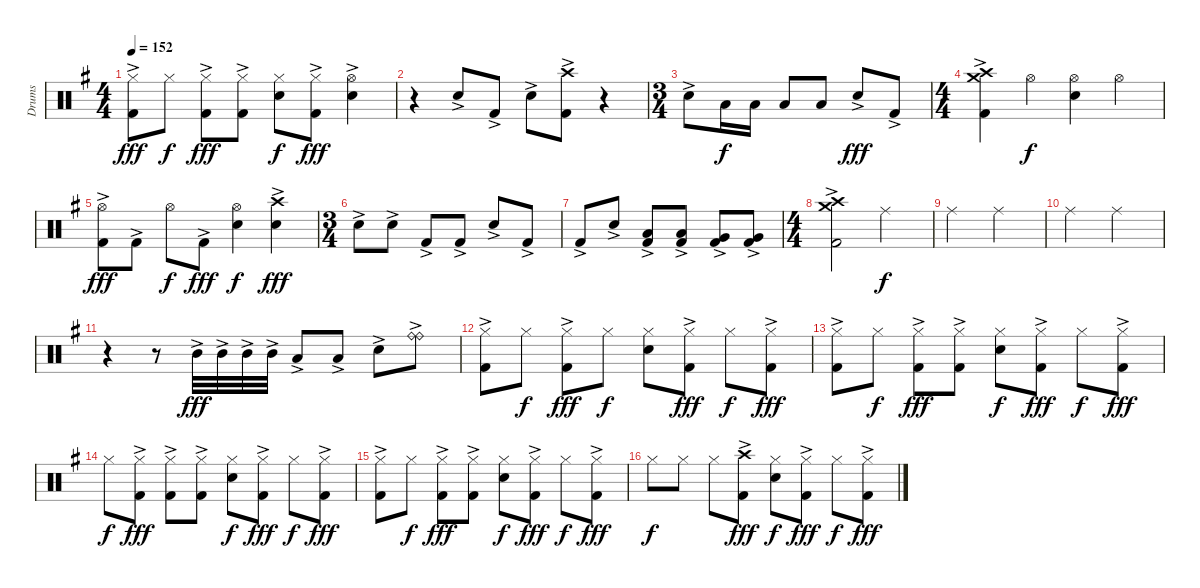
\track ("Drums" "Drums") {instrument percussion}
\staff {score}
\articulation defaults
\ts (4 4)
\tempo 152
\clef neutral
\ks eminor
("Hi-Hat (closed)" "Kick (hit) 2"{ac}).8{dy fff} "Hi-Hat (closed)".8{dy f} ("Hi-Hat (closed)" "Kick (hit) 2"{ac}).8{dy fff} ("Hi-Hat (closed)" "Kick (hit) 2"{ac}).8 ("Hi-Hat (closed)" "Snare (hit) 2").8{dy f} ("Hi-Hat (closed)" "Kick (hit) 2"{ac}).8{dy fff} ("Hi-Hat (open)"{ac} "Snare (hit) 2"{ac}).4 |
r.4 "Snare (hit) 2"{ac}.8 "Kick (hit) 2"{ac}.8 "Snare (hit) 2"{ac}.8 ("Crash high (hit)"{ac} "Kick (hit) 2"{ac}).8 r.4 |
\ts (3 4)
"Snare (hit) 2"{ac}.8 "Low Tom (hit)".16{dy f} "Low Tom (hit)".16 "Low Tom (hit)".8 "Low Tom (hit)".8 "Snare (hit) 2"{ac}.8{dy fff} "Kick (hit) 2"{ac}.8 |
\ts (4 4)
("Crash high (hit)"{ac} "Crash medium (hit)"{ac} "Kick (hit) 2"{ac}).4 "Hi-Hat (open)".4{dy f} ("Hi-Hat (open)" "Snare (hit) 2").4 "Hi-Hat (open)".4 |
("Hi-Hat (open)" "Kick (hit) 2"{ac}).8{dy fff} "Kick (hit) 2"{ac}.8 "Hi-Hat (open)".8{dy f} "Kick (hit) 2"{ac}.8{dy fff} ("Hi-Hat (open)" "Snare (hit) 2").4{dy f} ("Crash high (hit)"{ac} "Snare (hit) 2").4{dy fff} |
\ts (3 4)
"Snare (hit) 2"{ac}.8 "Snare (hit) 2"{ac}.8 "Kick (hit) 2"{ac}.8 "Kick (hit) 2"{ac}.8 "Snare (hit) 2"{ac}.8 "Kick (hit) 2"{ac}.8 |
"Kick (hit) 2"{ac}.8 "Snare (hit) 2"{ac}.8 ("Low Tom (hit)" "Kick (hit) 2"{ac}).8 ("Low Tom (hit)" "Kick (hit) 2"{ac}).8 ("Very Low Tom (hit)" "Kick (hit) 2"{ac}).8 ("Very Low Tom (hit)" "Kick (hit) 2"{ac}).8 |
\ts (4 4)
("Crash high (hit)"{ac} "Crash medium (hit)"{ac} "Kick (hit) 2"{ac}).2 "Ride (middle)".2{dy f} |
"Ride (middle)".2 "Ride (middle)".2 |
"Ride (middle)".2 "Ride (middle)".2 |
r.4 r.8 "Mid Tom (hit)"{ac}.32{dy fff} "Mid Tom (hit)"{ac}.32 "Mid Tom (hit)"{ac}.32 "Mid Tom (hit)"{ac}.32 "Low Tom (hit)"{ac}.8 "Low Tom (hit)"{ac}.8 "Snare (hit) 2"{ac}.8 ("Ride (bell)"{ac} "Ride (bell)"{ac}).8 |
("Hi-Hat (closed)" "Kick (hit) 2"{ac}).8 "Hi-Hat (closed)".8{dy f} ("Hi-Hat (closed)" "Kick (hit) 2"{ac}).8{dy fff} "Hi-Hat (closed)".8{dy f} ("Hi-Hat (closed)" "Snare (hit) 2").8 ("Hi-Hat (closed)" "Kick (hit) 2"{ac}).8{dy fff} "Hi-Hat (closed)".8{dy f} ("Hi-Hat (closed)" "Kick (hit) 2"{ac}).8{dy fff} |
("Hi-Hat (closed)" "Kick (hit) 2"{ac}).8 "Hi-Hat (closed)".8{dy f} ("Hi-Hat (closed)" "Kick (hit) 2"{ac}).8{dy fff} ("Hi-Hat (closed)" "Kick (hit) 2"{ac}).8 ("Hi-Hat (closed)" "Snare (hit) 2").8{dy f} ("Hi-Hat (closed)" "Kick (hit) 2"{ac}).8{dy fff} "Hi-Hat (closed)".8{dy f} ("Hi-Hat (closed)" "Kick (hit) 2"{ac}).8{dy fff} |
"Hi-Hat (closed)".8{dy f} ("Hi-Hat (closed)" "Kick (hit) 2"{ac}).8{dy fff} ("Hi-Hat (closed)" "Kick (hit) 2"{ac}).8 ("Hi-Hat (closed)" "Kick (hit) 2"{ac}).8 ("Hi-Hat (closed)" "Snare (hit) 2").8{dy f} ("Hi-Hat (closed)" "Kick (hit) 2"{ac}).8{dy fff} "Hi-Hat (closed)".8{dy f} ("Hi-Hat (closed)" "Kick (hit) 2"{ac}).8{dy fff} |
("Hi-Hat (closed)" "Kick (hit) 2"{ac}).8 "Hi-Hat (closed)".8{dy f} ("Hi-Hat (closed)" "Kick (hit) 2"{ac}).8{dy fff} ("Hi-Hat (closed)" "Kick (hit) 2"{ac}).8 ("Hi-Hat (closed)" "Snare (hit) 2").8{dy f} ("Hi-Hat (closed)" "Kick (hit) 2"{ac}).8{dy fff} "Hi-Hat (closed)".8{dy f} ("Hi-Hat (closed)" "Kick (hit) 2"{ac}).8{dy fff} |
"Hi-Hat (closed)".8{dy f} "Hi-Hat (closed)".8 "Hi-Hat (closed)".8 ("Crash high (hit)" "Kick (hit) 2"{ac}).8{dy fff} ("Hi-Hat (closed)" "Snare (hit) 2").8{dy f} ("Hi-Hat (closed)" "Kick (hit) 2"{ac}).8{dy fff} "Hi-Hat (closed)".8{dy f} ("Hi-Hat (closed)" "Kick (hit) 2"{ac}).8{dy fff}
